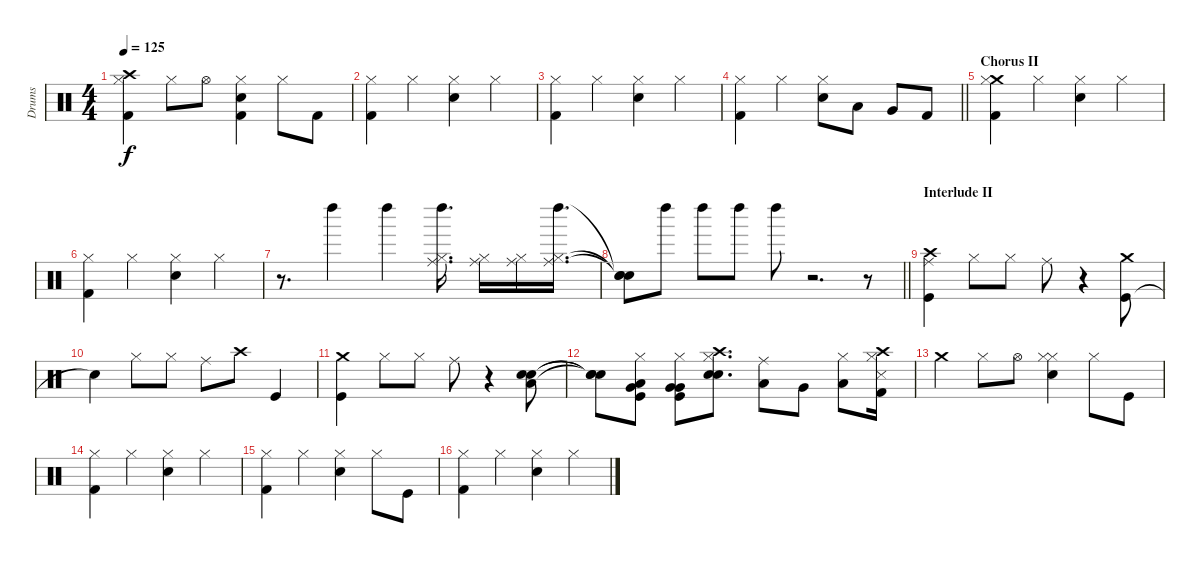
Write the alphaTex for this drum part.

\track ("Drums" "Drums") {instrument percussion}
\staff {score}
\articulation defaults
\ts (4 4)
\tempo 125
\clef neutral
\ks c
("Crash high (hit)" "Hi-Hat (closed)" "Kick (hit) 2").4{dy f} "Hi-Hat (closed)".8 "Hi-Hat (open)".8 ("Hi-Hat (closed)" "Snare (hit) 2" "Kick (hit) 2").4 "Hi-Hat (closed)".8 "Kick (hit) 2".8 |
("Hi-Hat (closed)" "Kick (hit) 2").4 "Hi-Hat (closed)".4 ("Hi-Hat (closed)" "Snare (hit) 2").4 "Hi-Hat (closed)".4 |
("Hi-Hat (closed)" "Kick (hit) 2").4 "Hi-Hat (closed)".4 ("Hi-Hat (closed)" "Snare (hit) 2").4 "Hi-Hat (closed)".4 |
\barLineRight lightlight
("Hi-Hat (closed)" "Kick (hit) 2").4 "Hi-Hat (closed)".4 ("Hi-Hat (closed)" "Snare (hit) 2").8 "Low Tom (hit)".8 "Very Low Tom (hit)".8 "Kick (hit) 2".8 |
\section ("" "Chorus II")
("Crash medium (hit)" "Hi-Hat (closed)" "Kick (hit) 2").4 "Hi-Hat (closed)".4 ("Hi-Hat (closed)" "Snare (hit) 2").4 "Hi-Hat (closed)".4 |
("Hi-Hat (closed)" "Kick (hit) 2").4 "Hi-Hat (closed)".4 ("Hi-Hat (closed)" "Snare (hit) 2").4 "Hi-Hat (closed)".4 |
r.8{d} "Left Maraca (hit)".4 "Left Maraca (hit)".4 ("Ride (middle)" "Hi-Hat (closed)" "Left Maraca (hit)").16{d} ("Ride (middle)" "Hi-Hat (closed)").16 ("Ride (middle)" "Hi-Hat (closed)").16 ("Ride (middle)" "Hi-Hat (closed)" "Left Maraca (hit)").16{d} |
\barLineRight lightlight
("Snare (hit)"{t} "Snare (hit)"{t} "Snare (hit)"{t}).8 "Left Maraca (hit)".8 "Left Maraca (hit)".8 "Left Maraca (hit)".8 "Left Maraca (hit)".8 r.2{d} r.8 |
\section ("" "Interlude II")
("Kick (hit)" "Ride (middle)" "Crash high (hit)").4 "Hi-Hat (closed)".8 "Hi-Hat (closed)".8 "Ride (middle)".8 r.4 ("Kick (hit)" "Crash medium (hit)").8 |
"Snare (hit)"{t}.4 "Hi-Hat (closed)".8 "Hi-Hat (closed)".8 "Ride (middle)".8 "Crash high (hit)".8 "Kick (hit)".4 |
("Kick (hit)" "Crash medium (hit)").4 "Hi-Hat (closed)".8 "Hi-Hat (closed)".8 "Ride (middle)".8 r.4 ("Snare (hit) 2" "Low Tom (hit)" "Snare (hit) 2").8 |
("Snare (hit)"{t} "Snare (hit)"{t} "Snare (hit)"{t}).8 ("Hi-Hat (closed)" "Low Tom (hit)" "Kick (hit)" "Very Low Tom (hit)").8 ("Hi-Hat (closed)" "Very Low Tom (hit)" "Kick (hit)" "Very Low Tom (hit)").8 ("Hi-Hat (closed)" "Snare (hit) 2" "Snare (hit) 2" "Crash high (hit)").8{d} ("Ride (middle)" "Low Tom (hit)").8 "Very Low Tom (hit)".8 ("Hi-Hat (closed)" "Low Floor Tom (hit)").8 ("Crash high (hit)" "Hi-Hat (closed)" "Snare (side stick) 3" "Kick (hit) 2").16 |
"Crash medium (hit)".4 "Hi-Hat (closed)".8 "Hi-Hat (open)".8 ("Snare (hit) 2" "Hi-Hat (closed)" "Hi-Hat (closed)").4 "Hi-Hat (closed)".8 "Kick (hit)".8 |
("Hi-Hat (closed)" "Kick (hit) 2").4 "Hi-Hat (closed)".4 ("Hi-Hat (closed)" "Snare (hit) 2").4 "Hi-Hat (closed)".4 |
("Hi-Hat (closed)" "Kick (hit) 2").4 "Hi-Hat (closed)".4 ("Hi-Hat (closed)" "Snare (hit) 2").4 "Hi-Hat (closed)".8 "Kick (hit)".8 |
("Hi-Hat (closed)" "Kick (hit) 2").4 "Hi-Hat (closed)".4 ("Hi-Hat (closed)" "Snare (hit) 2").4 "Hi-Hat (closed)".4
